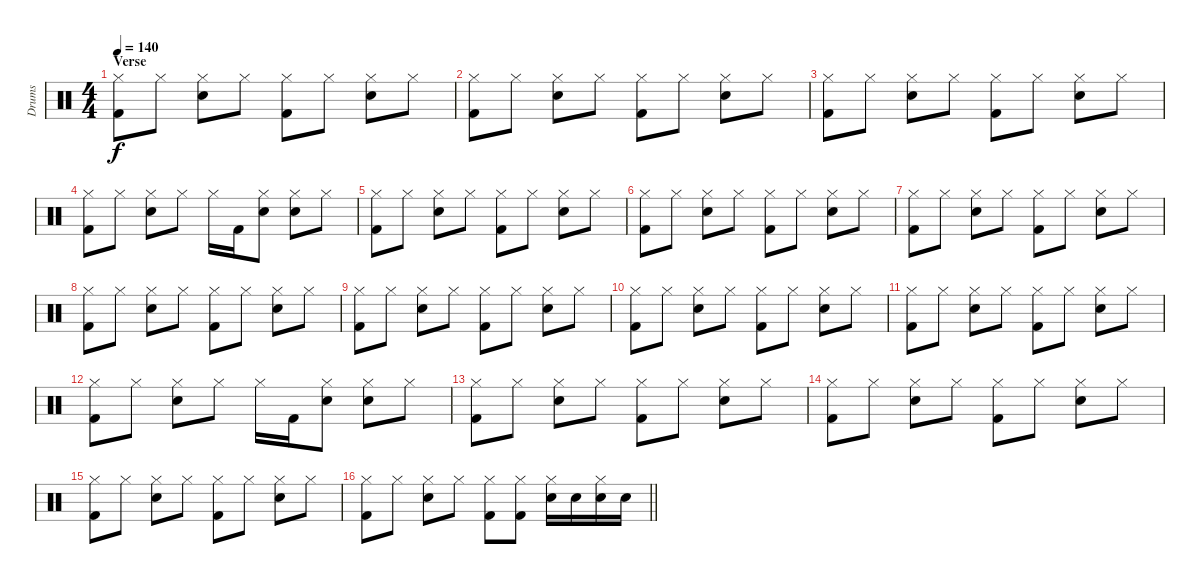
\track ("Drums" "Drums") {instrument percussion}
\staff {score}
\articulation defaults
\ts (4 4)
\section ("" "Verse")
\tempo 140
\clef neutral
\ks c
("Hi-Hat (closed)" "Kick (hit) 2").8{dy f} "Hi-Hat (closed)".8 ("Hi-Hat (closed)" "Snare (hit) 2").8 "Hi-Hat (closed)".8 ("Hi-Hat (closed)" "Kick (hit) 2").8 "Hi-Hat (closed)".8 ("Hi-Hat (closed)" "Snare (hit) 2").8 "Hi-Hat (closed)".8 |
("Hi-Hat (closed)" "Kick (hit) 2").8 "Hi-Hat (closed)".8 ("Hi-Hat (closed)" "Snare (hit) 2").8 "Hi-Hat (closed)".8 ("Hi-Hat (closed)" "Kick (hit) 2").8 "Hi-Hat (closed)".8 ("Hi-Hat (closed)" "Snare (hit) 2").8 "Hi-Hat (closed)".8 |
("Hi-Hat (closed)" "Kick (hit) 2").8 "Hi-Hat (closed)".8 ("Hi-Hat (closed)" "Snare (hit) 2").8 "Hi-Hat (closed)".8 ("Hi-Hat (closed)" "Kick (hit) 2").8 "Hi-Hat (closed)".8 ("Hi-Hat (closed)" "Snare (hit) 2").8 "Hi-Hat (closed)".8 |
("Hi-Hat (closed)" "Kick (hit) 2").8 "Hi-Hat (closed)".8 ("Hi-Hat (closed)" "Snare (hit) 2").8 "Hi-Hat (closed)".8 "Hi-Hat (closed)".16 "Kick (hit) 2".16 ("Hi-Hat (closed)" "Snare (hit) 2").8 ("Hi-Hat (closed)" "Snare (hit) 2").8 "Hi-Hat (closed)".8 |
("Hi-Hat (closed)" "Kick (hit) 2").8 "Hi-Hat (closed)".8 ("Hi-Hat (closed)" "Snare (hit) 2").8 "Hi-Hat (closed)".8 ("Hi-Hat (closed)" "Kick (hit) 2").8 "Hi-Hat (closed)".8 ("Hi-Hat (closed)" "Snare (hit) 2").8 "Hi-Hat (closed)".8 |
("Hi-Hat (closed)" "Kick (hit) 2").8 "Hi-Hat (closed)".8 ("Hi-Hat (closed)" "Snare (hit) 2").8 "Hi-Hat (closed)".8 ("Hi-Hat (closed)" "Kick (hit) 2").8 "Hi-Hat (closed)".8 ("Hi-Hat (closed)" "Snare (hit) 2").8 "Hi-Hat (closed)".8 |
("Hi-Hat (closed)" "Kick (hit) 2").8 "Hi-Hat (closed)".8 ("Hi-Hat (closed)" "Snare (hit) 2").8 "Hi-Hat (closed)".8 ("Hi-Hat (closed)" "Kick (hit) 2").8 "Hi-Hat (closed)".8 ("Hi-Hat (closed)" "Snare (hit) 2").8 "Hi-Hat (closed)".8 |
("Hi-Hat (closed)" "Kick (hit) 2").8 "Hi-Hat (closed)".8 ("Hi-Hat (closed)" "Snare (hit) 2").8 "Hi-Hat (closed)".8 ("Hi-Hat (closed)" "Kick (hit) 2").8 "Hi-Hat (closed)".8 ("Hi-Hat (closed)" "Snare (hit) 2").8 "Hi-Hat (closed)".8 |
("Hi-Hat (closed)" "Kick (hit) 2").8 "Hi-Hat (closed)".8 ("Hi-Hat (closed)" "Snare (hit) 2").8 "Hi-Hat (closed)".8 ("Hi-Hat (closed)" "Kick (hit) 2").8 "Hi-Hat (closed)".8 ("Hi-Hat (closed)" "Snare (hit) 2").8 "Hi-Hat (closed)".8 |
("Hi-Hat (closed)" "Kick (hit) 2").8 "Hi-Hat (closed)".8 ("Hi-Hat (closed)" "Snare (hit) 2").8 "Hi-Hat (closed)".8 ("Hi-Hat (closed)" "Kick (hit) 2").8 "Hi-Hat (closed)".8 ("Hi-Hat (closed)" "Snare (hit) 2").8 "Hi-Hat (closed)".8 |
("Hi-Hat (closed)" "Kick (hit) 2").8 "Hi-Hat (closed)".8 ("Hi-Hat (closed)" "Snare (hit) 2").8 "Hi-Hat (closed)".8 ("Hi-Hat (closed)" "Kick (hit) 2").8 "Hi-Hat (closed)".8 ("Hi-Hat (closed)" "Snare (hit) 2").8 "Hi-Hat (closed)".8 |
("Hi-Hat (closed)" "Kick (hit) 2").8 "Hi-Hat (closed)".8 ("Hi-Hat (closed)" "Snare (hit) 2").8 "Hi-Hat (closed)".8 "Hi-Hat (closed)".16 "Kick (hit) 2".16 ("Hi-Hat (closed)" "Snare (hit) 2").8 ("Hi-Hat (closed)" "Snare (hit) 2").8 "Hi-Hat (closed)".8 |
("Hi-Hat (closed)" "Kick (hit) 2").8 "Hi-Hat (closed)".8 ("Hi-Hat (closed)" "Snare (hit) 2").8 "Hi-Hat (closed)".8 ("Hi-Hat (closed)" "Kick (hit) 2").8 "Hi-Hat (closed)".8 ("Hi-Hat (closed)" "Snare (hit) 2").8 "Hi-Hat (closed)".8 |
("Hi-Hat (closed)" "Kick (hit) 2").8 "Hi-Hat (closed)".8 ("Hi-Hat (closed)" "Snare (hit) 2").8 "Hi-Hat (closed)".8 ("Hi-Hat (closed)" "Kick (hit) 2").8 "Hi-Hat (closed)".8 ("Hi-Hat (closed)" "Snare (hit) 2").8 "Hi-Hat (closed)".8 |
("Hi-Hat (closed)" "Kick (hit) 2").8 "Hi-Hat (closed)".8 ("Hi-Hat (closed)" "Snare (hit) 2").8 "Hi-Hat (closed)".8 ("Hi-Hat (closed)" "Kick (hit) 2").8 "Hi-Hat (closed)".8 ("Hi-Hat (closed)" "Snare (hit) 2").8 "Hi-Hat (closed)".8 |
\barLineRight lightlight
("Hi-Hat (closed)" "Kick (hit) 2").8 "Hi-Hat (closed)".8 ("Hi-Hat (closed)" "Snare (hit) 2").8 "Hi-Hat (closed)".8 ("Hi-Hat (closed)" "Kick (hit) 2").8 ("Hi-Hat (closed)" "Kick (hit) 2").8 ("Hi-Hat (closed)" "Snare (hit) 2").16 "Snare (hit) 2".16 ("Hi-Hat (closed)" "Snare (hit) 2").16 "Snare (hit) 2".16
